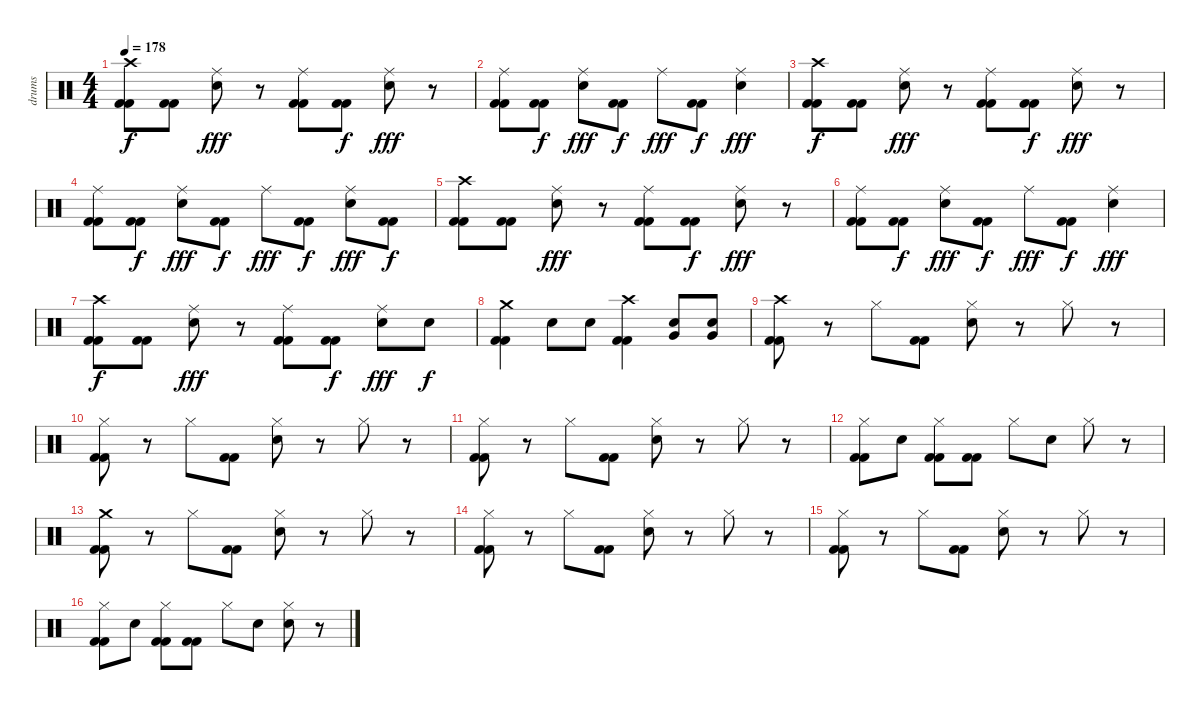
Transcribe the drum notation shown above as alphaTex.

\track ("drums" "drums") {instrument percussion}
\staff {score}
\articulation defaults
\ts (4 4)
\tempo 178
\clef neutral
\ks c
("Crash high (hit)" "Kick (hit) 2" "Kick (hit) 2").8{dy f} ("Kick (hit) 2" "Kick (hit) 2").8 ("Ride (middle)" "Electric Snare (hit)").8{dy fff} r.8 ("Ride (middle)" "Kick (hit) 2" "Kick (hit) 2").8 ("Kick (hit) 2" "Kick (hit) 2").8{dy f} ("Ride (middle)" "Electric Snare (hit)").8{dy fff} r.8 |
("Ride (middle)" "Kick (hit) 2" "Kick (hit) 2").8 ("Kick (hit) 2" "Kick (hit) 2").8{dy f} ("Ride (middle)" "Electric Snare (hit)").8{dy fff} ("Kick (hit) 2" "Kick (hit) 2").8{dy f} "Ride (middle)".8{dy fff} ("Kick (hit) 2" "Kick (hit) 2").8{dy f} ("Ride (middle)" "Electric Snare (hit)").4{dy fff} |
("Crash high (hit)" "Kick (hit) 2" "Kick (hit) 2").8{dy f} ("Kick (hit) 2" "Kick (hit) 2").8 ("Ride (middle)" "Electric Snare (hit)").8{dy fff} r.8 ("Ride (middle)" "Kick (hit) 2" "Kick (hit) 2").8 ("Kick (hit) 2" "Kick (hit) 2").8{dy f} ("Ride (middle)" "Electric Snare (hit)").8{dy fff} r.8 |
("Ride (middle)" "Kick (hit) 2" "Kick (hit) 2").8 ("Kick (hit) 2" "Kick (hit) 2").8{dy f} ("Ride (middle)" "Electric Snare (hit)").8{dy fff} ("Kick (hit) 2" "Kick (hit) 2").8{dy f} "Ride (middle)".8{dy fff} ("Kick (hit) 2" "Kick (hit) 2").8{dy f} ("Ride (middle)" "Electric Snare (hit)").8{dy fff} ("Kick (hit) 2" "Kick (hit) 2").8{dy f} |
("Crash high (hit)" "Kick (hit) 2" "Kick (hit) 2").8 ("Kick (hit) 2" "Kick (hit) 2").8 ("Ride (middle)" "Electric Snare (hit)").8{dy fff} r.8 ("Ride (middle)" "Kick (hit) 2" "Kick (hit) 2").8 ("Kick (hit) 2" "Kick (hit) 2").8{dy f} ("Ride (middle)" "Electric Snare (hit)").8{dy fff} r.8 |
("Ride (middle)" "Kick (hit) 2" "Kick (hit) 2").8 ("Kick (hit) 2" "Kick (hit) 2").8{dy f} ("Ride (middle)" "Electric Snare (hit)").8{dy fff} ("Kick (hit) 2" "Kick (hit) 2").8{dy f} "Ride (middle)".8{dy fff} ("Kick (hit) 2" "Kick (hit) 2").8{dy f} ("Ride (middle)" "Electric Snare (hit)").4{dy fff} |
("Crash high (hit)" "Kick (hit) 2" "Kick (hit) 2").8{dy f} ("Kick (hit) 2" "Kick (hit) 2").8 ("Ride (middle)" "Electric Snare (hit)").8{dy fff} r.8 ("Ride (middle)" "Kick (hit) 2" "Kick (hit) 2").8 ("Kick (hit) 2" "Kick (hit) 2").8{dy f} ("Ride (middle)" "Electric Snare (hit)").8{dy fff} "Electric Snare (hit)".8{dy f} |
("Crash medium (hit)" "Kick (hit) 2" "Kick (hit) 2").4 "Electric Snare (hit)".8 "Electric Snare (hit)".8 ("Crash high (hit)" "Kick (hit) 2" "Kick (hit) 2").4 ("Very Low Tom (hit)" "Electric Snare (hit)").8 ("Very Low Tom (hit)" "Electric Snare (hit)").8 |
("Crash high (hit)" "Kick (hit) 2" "Kick (hit) 2").8 r.8 "Hi-Hat (closed)".8 ("Kick (hit) 2" "Kick (hit) 2").8 ("Hi-Hat (closed)" "Electric Snare (hit)").8 r.8 "Hi-Hat (closed)".8 r.8 |
("Hi-Hat (closed)" "Kick (hit) 2" "Kick (hit) 2").8 r.8 "Hi-Hat (closed)".8 ("Kick (hit) 2" "Kick (hit) 2").8 ("Hi-Hat (closed)" "Electric Snare (hit)").8 r.8 "Hi-Hat (closed)".8 r.8 |
("Hi-Hat (closed)" "Kick (hit) 2" "Kick (hit) 2").8 r.8 "Hi-Hat (closed)".8 ("Kick (hit) 2" "Kick (hit) 2").8 ("Hi-Hat (closed)" "Electric Snare (hit)").8 r.8 "Hi-Hat (closed)".8 r.8 |
("Hi-Hat (closed)" "Kick (hit) 2" "Kick (hit) 2").8 "Electric Snare (hit)".8 ("Hi-Hat (closed)" "Kick (hit) 2" "Kick (hit) 2").8 ("Kick (hit) 2" "Kick (hit) 2").8 "Hi-Hat (closed)".8 "Electric Snare (hit)".8 "Hi-Hat (closed)".8 r.8 |
("Crash medium (hit)" "Kick (hit) 2" "Kick (hit) 2").8 r.8 "Hi-Hat (closed)".8 ("Kick (hit) 2" "Kick (hit) 2").8 ("Hi-Hat (closed)" "Electric Snare (hit)").8 r.8 "Hi-Hat (closed)".8 r.8 |
("Hi-Hat (closed)" "Kick (hit) 2" "Kick (hit) 2").8 r.8 "Hi-Hat (closed)".8 ("Kick (hit) 2" "Kick (hit) 2").8 ("Hi-Hat (closed)" "Electric Snare (hit)").8 r.8 "Hi-Hat (closed)".8 r.8 |
("Hi-Hat (closed)" "Kick (hit) 2" "Kick (hit) 2").8 r.8 "Hi-Hat (closed)".8 ("Kick (hit) 2" "Kick (hit) 2").8 ("Hi-Hat (closed)" "Electric Snare (hit)").8 r.8 "Hi-Hat (closed)".8 r.8 |
("Hi-Hat (closed)" "Kick (hit) 2" "Kick (hit) 2").8 "Electric Snare (hit)".8 ("Hi-Hat (closed)" "Kick (hit) 2" "Kick (hit) 2").8 ("Kick (hit) 2" "Kick (hit) 2").8 "Hi-Hat (closed)".8 "Electric Snare (hit)".8 ("Hi-Hat (closed)" "Electric Snare (hit)").8 r.8
